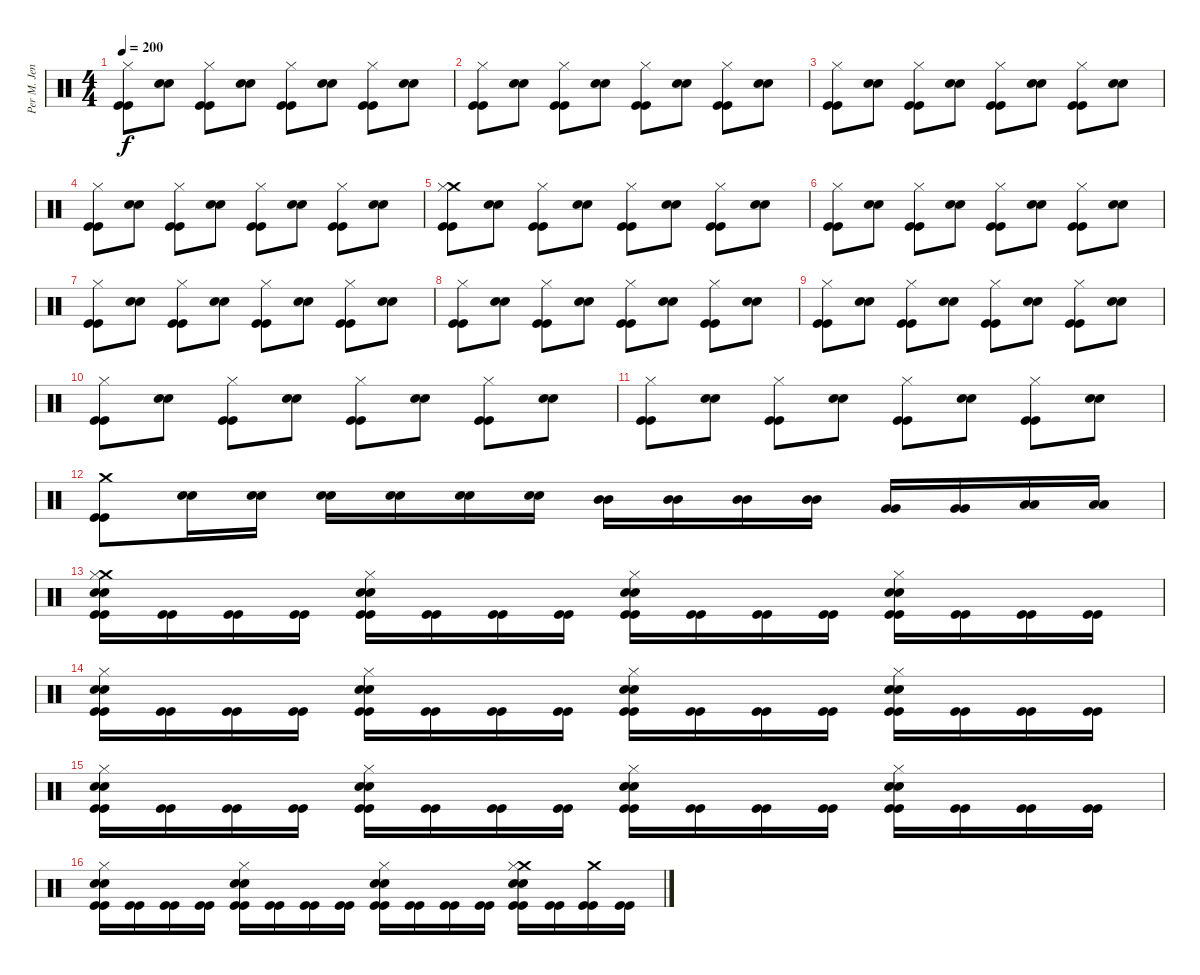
\track ("Per M. Jensen" "Per M. Jen") {instrument percussion}
\staff {score}
\articulation defaults
\ts (4 4)
\tempo 200
\clef neutral
\ks c
("Hi-Hat (closed)" "Kick (hit)" "Kick (hit)").8{dy f} ("Snare (hit) 2" "Snare (hit) 2").8 ("Hi-Hat (closed)" "Kick (hit)" "Kick (hit)").8 ("Snare (hit) 2" "Snare (hit) 2").8 ("Hi-Hat (closed)" "Kick (hit)" "Kick (hit)").8 ("Snare (hit) 2" "Snare (hit) 2").8 ("Hi-Hat (closed)" "Kick (hit)" "Kick (hit)").8 ("Snare (hit) 2" "Snare (hit) 2").8 |
("Hi-Hat (closed)" "Kick (hit)" "Kick (hit)").8 ("Snare (hit) 2" "Snare (hit) 2").8 ("Hi-Hat (closed)" "Kick (hit)" "Kick (hit)").8 ("Snare (hit) 2" "Snare (hit) 2").8 ("Hi-Hat (closed)" "Kick (hit)" "Kick (hit)").8 ("Snare (hit) 2" "Snare (hit) 2").8 ("Hi-Hat (closed)" "Kick (hit)" "Kick (hit)").8 ("Snare (hit) 2" "Snare (hit) 2").8 |
("Hi-Hat (closed)" "Kick (hit)" "Kick (hit)").8 ("Snare (hit) 2" "Snare (hit) 2").8 ("Hi-Hat (closed)" "Kick (hit)" "Kick (hit)").8 ("Snare (hit) 2" "Snare (hit) 2").8 ("Hi-Hat (closed)" "Kick (hit)" "Kick (hit)").8 ("Snare (hit) 2" "Snare (hit) 2").8 ("Hi-Hat (closed)" "Kick (hit)" "Kick (hit)").8 ("Snare (hit) 2" "Snare (hit) 2").8 |
("Hi-Hat (closed)" "Kick (hit)" "Kick (hit)").8 ("Snare (hit) 2" "Snare (hit) 2").8 ("Hi-Hat (closed)" "Kick (hit)" "Kick (hit)").8 ("Snare (hit) 2" "Snare (hit) 2").8 ("Hi-Hat (closed)" "Kick (hit)" "Kick (hit)").8 ("Snare (hit) 2" "Snare (hit) 2").8 ("Hi-Hat (closed)" "Kick (hit)" "Kick (hit)").8 ("Snare (hit) 2" "Snare (hit) 2").8 |
("Crash medium (hit)" "Hi-Hat (closed)" "Kick (hit)" "Kick (hit)").8 ("Snare (hit) 2" "Snare (hit) 2").8 ("Hi-Hat (closed)" "Kick (hit)" "Kick (hit)").8 ("Snare (hit) 2" "Snare (hit) 2").8 ("Hi-Hat (closed)" "Kick (hit)" "Kick (hit)").8 ("Snare (hit) 2" "Snare (hit) 2").8 ("Hi-Hat (closed)" "Kick (hit)" "Kick (hit)").8 ("Snare (hit) 2" "Snare (hit) 2").8 |
("Hi-Hat (closed)" "Kick (hit)" "Kick (hit)").8 ("Snare (hit) 2" "Snare (hit) 2").8 ("Hi-Hat (closed)" "Kick (hit)" "Kick (hit)").8 ("Snare (hit) 2" "Snare (hit) 2").8 ("Hi-Hat (closed)" "Kick (hit)" "Kick (hit)").8 ("Snare (hit) 2" "Snare (hit) 2").8 ("Hi-Hat (closed)" "Kick (hit)" "Kick (hit)").8 ("Snare (hit) 2" "Snare (hit) 2").8 |
("Hi-Hat (closed)" "Kick (hit)" "Kick (hit)").8 ("Snare (hit) 2" "Snare (hit) 2").8 ("Hi-Hat (closed)" "Kick (hit)" "Kick (hit)").8 ("Snare (hit) 2" "Snare (hit) 2").8 ("Hi-Hat (closed)" "Kick (hit)" "Kick (hit)").8 ("Snare (hit) 2" "Snare (hit) 2").8 ("Hi-Hat (closed)" "Kick (hit)" "Kick (hit)").8 ("Snare (hit) 2" "Snare (hit) 2").8 |
("Hi-Hat (closed)" "Kick (hit)" "Kick (hit)").8 ("Snare (hit) 2" "Snare (hit) 2").8 ("Hi-Hat (closed)" "Kick (hit)" "Kick (hit)").8 ("Snare (hit) 2" "Snare (hit) 2").8 ("Hi-Hat (closed)" "Kick (hit)" "Kick (hit)").8 ("Snare (hit) 2" "Snare (hit) 2").8 ("Hi-Hat (closed)" "Kick (hit)" "Kick (hit)").8 ("Snare (hit) 2" "Snare (hit) 2").8 |
("Hi-Hat (closed)" "Kick (hit)" "Kick (hit)").8 ("Snare (hit) 2" "Snare (hit) 2").8 ("Hi-Hat (closed)" "Kick (hit)" "Kick (hit)").8 ("Snare (hit) 2" "Snare (hit) 2").8 ("Hi-Hat (closed)" "Kick (hit)" "Kick (hit)").8 ("Snare (hit) 2" "Snare (hit) 2").8 ("Hi-Hat (closed)" "Kick (hit)" "Kick (hit)").8 ("Snare (hit) 2" "Snare (hit) 2").8 |
("Hi-Hat (closed)" "Kick (hit)" "Kick (hit)").8 ("Snare (hit) 2" "Snare (hit) 2").8 ("Hi-Hat (closed)" "Kick (hit)" "Kick (hit)").8 ("Snare (hit) 2" "Snare (hit) 2").8 ("Hi-Hat (closed)" "Kick (hit)" "Kick (hit)").8 ("Snare (hit) 2" "Snare (hit) 2").8 ("Hi-Hat (closed)" "Kick (hit)" "Kick (hit)").8 ("Snare (hit) 2" "Snare (hit) 2").8 |
("Hi-Hat (closed)" "Kick (hit)" "Kick (hit)").8 ("Snare (hit) 2" "Snare (hit) 2").8 ("Hi-Hat (closed)" "Kick (hit)" "Kick (hit)").8 ("Snare (hit) 2" "Snare (hit) 2").8 ("Hi-Hat (closed)" "Kick (hit)" "Kick (hit)").8 ("Snare (hit) 2" "Snare (hit) 2").8 ("Hi-Hat (closed)" "Kick (hit)" "Kick (hit)").8 ("Snare (hit) 2" "Snare (hit) 2").8 |
("Crash medium (hit)" "Kick (hit)" "Kick (hit)").8 ("Snare (hit) 2" "Snare (hit) 2").16 ("Snare (hit) 2" "Snare (hit) 2").16 ("Snare (hit) 2" "Snare (hit) 2").16 ("Snare (hit) 2" "Snare (hit) 2").16 ("Snare (hit) 2" "Snare (hit) 2").16 ("Snare (hit) 2" "Snare (hit) 2").16 ("Mid Tom (hit)" "Mid Tom (hit)").16 ("Mid Tom (hit)" "Mid Tom (hit)").16 ("Mid Tom (hit)" "Mid Tom (hit)").16 ("Mid Tom (hit)" "Mid Tom (hit)").16 ("Very Low Tom (hit)" "Very Low Tom (hit)").16 ("Very Low Tom (hit)" "Very Low Tom (hit)").16 ("Low Floor Tom (hit)" "Low Floor Tom (hit)").16 ("Low Floor Tom (hit)" "Low Floor Tom (hit)").16 |
("Crash medium (hit)" "Hi-Hat (closed)" "Snare (hit) 2" "Snare (hit) 2" "Kick (hit)" "Kick (hit)").16 ("Kick (hit)" "Kick (hit)").16 ("Kick (hit)" "Kick (hit)").16 ("Kick (hit)" "Kick (hit)").16 ("Hi-Hat (closed)" "Snare (hit) 2" "Snare (hit) 2" "Kick (hit)" "Kick (hit)").16 ("Kick (hit)" "Kick (hit)").16 ("Kick (hit)" "Kick (hit)").16 ("Kick (hit)" "Kick (hit)").16 ("Hi-Hat (closed)" "Snare (hit) 2" "Snare (hit) 2" "Kick (hit)" "Kick (hit)").16 ("Kick (hit)" "Kick (hit)").16 ("Kick (hit)" "Kick (hit)").16 ("Kick (hit)" "Kick (hit)").16 ("Hi-Hat (closed)" "Snare (hit) 2" "Snare (hit) 2" "Kick (hit)" "Kick (hit)").16 ("Kick (hit)" "Kick (hit)").16 ("Kick (hit)" "Kick (hit)").16 ("Kick (hit)" "Kick (hit)").16 |
("Hi-Hat (closed)" "Snare (hit) 2" "Snare (hit) 2" "Kick (hit)" "Kick (hit)").16 ("Kick (hit)" "Kick (hit)").16 ("Kick (hit)" "Kick (hit)").16 ("Kick (hit)" "Kick (hit)").16 ("Hi-Hat (closed)" "Snare (hit) 2" "Snare (hit) 2" "Kick (hit)" "Kick (hit)").16 ("Kick (hit)" "Kick (hit)").16 ("Kick (hit)" "Kick (hit)").16 ("Kick (hit)" "Kick (hit)").16 ("Hi-Hat (closed)" "Snare (hit) 2" "Snare (hit) 2" "Kick (hit)" "Kick (hit)").16 ("Kick (hit)" "Kick (hit)").16 ("Kick (hit)" "Kick (hit)").16 ("Kick (hit)" "Kick (hit)").16 ("Hi-Hat (closed)" "Snare (hit) 2" "Snare (hit) 2" "Kick (hit)" "Kick (hit)").16 ("Kick (hit)" "Kick (hit)").16 ("Kick (hit)" "Kick (hit)").16 ("Kick (hit)" "Kick (hit)").16 |
("Hi-Hat (closed)" "Snare (hit) 2" "Snare (hit) 2" "Kick (hit)" "Kick (hit)").16 ("Kick (hit)" "Kick (hit)").16 ("Kick (hit)" "Kick (hit)").16 ("Kick (hit)" "Kick (hit)").16 ("Hi-Hat (closed)" "Snare (hit) 2" "Snare (hit) 2" "Kick (hit)" "Kick (hit)").16 ("Kick (hit)" "Kick (hit)").16 ("Kick (hit)" "Kick (hit)").16 ("Kick (hit)" "Kick (hit)").16 ("Hi-Hat (closed)" "Snare (hit) 2" "Snare (hit) 2" "Kick (hit)" "Kick (hit)").16 ("Kick (hit)" "Kick (hit)").16 ("Kick (hit)" "Kick (hit)").16 ("Kick (hit)" "Kick (hit)").16 ("Hi-Hat (closed)" "Snare (hit) 2" "Snare (hit) 2" "Kick (hit)" "Kick (hit)").16 ("Kick (hit)" "Kick (hit)").16 ("Kick (hit)" "Kick (hit)").16 ("Kick (hit)" "Kick (hit)").16 |
("Hi-Hat (closed)" "Snare (hit) 2" "Snare (hit) 2" "Kick (hit)" "Kick (hit)").16 ("Kick (hit)" "Kick (hit)").16 ("Kick (hit)" "Kick (hit)").16 ("Kick (hit)" "Kick (hit)").16 ("Hi-Hat (closed)" "Snare (hit) 2" "Snare (hit) 2" "Kick (hit)" "Kick (hit)").16 ("Kick (hit)" "Kick (hit)").16 ("Kick (hit)" "Kick (hit)").16 ("Kick (hit)" "Kick (hit)").16 ("Hi-Hat (closed)" "Snare (hit) 2" "Snare (hit) 2" "Kick (hit)" "Kick (hit)").16 ("Kick (hit)" "Kick (hit)").16 ("Kick (hit)" "Kick (hit)").16 ("Kick (hit)" "Kick (hit)").16 ("Crash medium (hit)" "Hi-Hat (closed)" "Snare (hit) 2" "Snare (hit) 2" "Kick (hit)" "Kick (hit)").16 ("Kick (hit)" "Kick (hit)").16 ("Crash medium (hit)" "Kick (hit)" "Kick (hit)").16 ("Kick (hit)" "Kick (hit)").16
